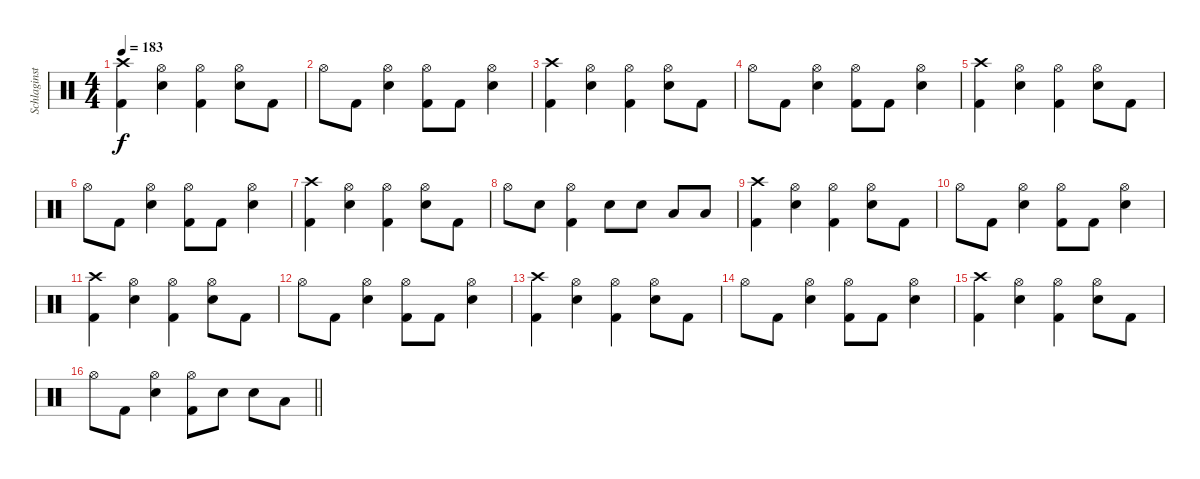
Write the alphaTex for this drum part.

\track ("Schlaginstrumente - Auswahl" "Schlaginst") {instrument percussion}
\staff {score}
\articulation defaults
\ts (4 4)
\tempo 183
\clef neutral
\ks c
("Crash high (hit)" "Kick (hit) 2").4{dy f} ("Hi-Hat (open)" "Snare (hit) 2").4 ("Hi-Hat (open)" "Kick (hit) 2").4 ("Hi-Hat (open)" "Snare (hit) 2").8 "Kick (hit) 2".8 |
"Hi-Hat (open)".8 "Kick (hit) 2".8 ("Hi-Hat (open)" "Snare (hit) 2").4 ("Hi-Hat (open)" "Kick (hit) 2").8 "Kick (hit) 2".8 ("Hi-Hat (open)" "Snare (hit) 2").4 |
("Crash high (hit)" "Kick (hit) 2").4 ("Hi-Hat (open)" "Snare (hit) 2").4 ("Hi-Hat (open)" "Kick (hit) 2").4 ("Hi-Hat (open)" "Snare (hit) 2").8 "Kick (hit) 2".8 |
"Hi-Hat (open)".8 "Kick (hit) 2".8 ("Hi-Hat (open)" "Snare (hit) 2").4 ("Hi-Hat (open)" "Kick (hit) 2").8 "Kick (hit) 2".8 ("Hi-Hat (open)" "Snare (hit) 2").4 |
("Crash high (hit)" "Kick (hit) 2").4 ("Hi-Hat (open)" "Snare (hit) 2").4 ("Hi-Hat (open)" "Kick (hit) 2").4 ("Hi-Hat (open)" "Snare (hit) 2").8 "Kick (hit) 2".8 |
"Hi-Hat (open)".8 "Kick (hit) 2".8 ("Hi-Hat (open)" "Snare (hit) 2").4 ("Hi-Hat (open)" "Kick (hit) 2").8 "Kick (hit) 2".8 ("Hi-Hat (open)" "Snare (hit) 2").4 |
("Crash high (hit)" "Kick (hit) 2").4 ("Hi-Hat (open)" "Snare (hit) 2").4 ("Hi-Hat (open)" "Kick (hit) 2").4 ("Hi-Hat (open)" "Snare (hit) 2").8 "Kick (hit) 2".8 |
"Hi-Hat (open)".8 "Snare (hit) 2".8 ("Hi-Hat (open)" "Kick (hit) 2").4 "Snare (hit) 2".8 "Snare (hit) 2".8 "Low Tom (hit)".8 "Low Tom (hit)".8 |
("Crash high (hit)" "Kick (hit) 2").4 ("Hi-Hat (open)" "Snare (hit) 2").4 ("Hi-Hat (open)" "Kick (hit) 2").4 ("Hi-Hat (open)" "Snare (hit) 2").8 "Kick (hit) 2".8 |
"Hi-Hat (open)".8 "Kick (hit) 2".8 ("Hi-Hat (open)" "Snare (hit) 2").4 ("Hi-Hat (open)" "Kick (hit) 2").8 "Kick (hit) 2".8 ("Hi-Hat (open)" "Snare (hit) 2").4 |
("Crash high (hit)" "Kick (hit) 2").4 ("Hi-Hat (open)" "Snare (hit) 2").4 ("Hi-Hat (open)" "Kick (hit) 2").4 ("Hi-Hat (open)" "Snare (hit) 2").8 "Kick (hit) 2".8 |
"Hi-Hat (open)".8 "Kick (hit) 2".8 ("Hi-Hat (open)" "Snare (hit) 2").4 ("Hi-Hat (open)" "Kick (hit) 2").8 "Kick (hit) 2".8 ("Hi-Hat (open)" "Snare (hit) 2").4 |
("Crash high (hit)" "Kick (hit) 2").4 ("Hi-Hat (open)" "Snare (hit) 2").4 ("Hi-Hat (open)" "Kick (hit) 2").4 ("Hi-Hat (open)" "Snare (hit) 2").8 "Kick (hit) 2".8 |
"Hi-Hat (open)".8 "Kick (hit) 2".8 ("Hi-Hat (open)" "Snare (hit) 2").4 ("Hi-Hat (open)" "Kick (hit) 2").8 "Kick (hit) 2".8 ("Hi-Hat (open)" "Snare (hit) 2").4 |
("Crash high (hit)" "Kick (hit) 2").4 ("Hi-Hat (open)" "Snare (hit) 2").4 ("Hi-Hat (open)" "Kick (hit) 2").4 ("Hi-Hat (open)" "Snare (hit) 2").8 "Kick (hit) 2".8 |
\barLineRight lightlight "Hi-Hat (open)".8 "Kick (hit) 2".8
("Hi-Hat (open)" "Snare (hit) 2").4 ("Hi-Hat (open)" "Kick (hit) 2").8 "Snare (hit) 2".8 "Snare (hit) 2".8 "Low Tom (hit)".8
